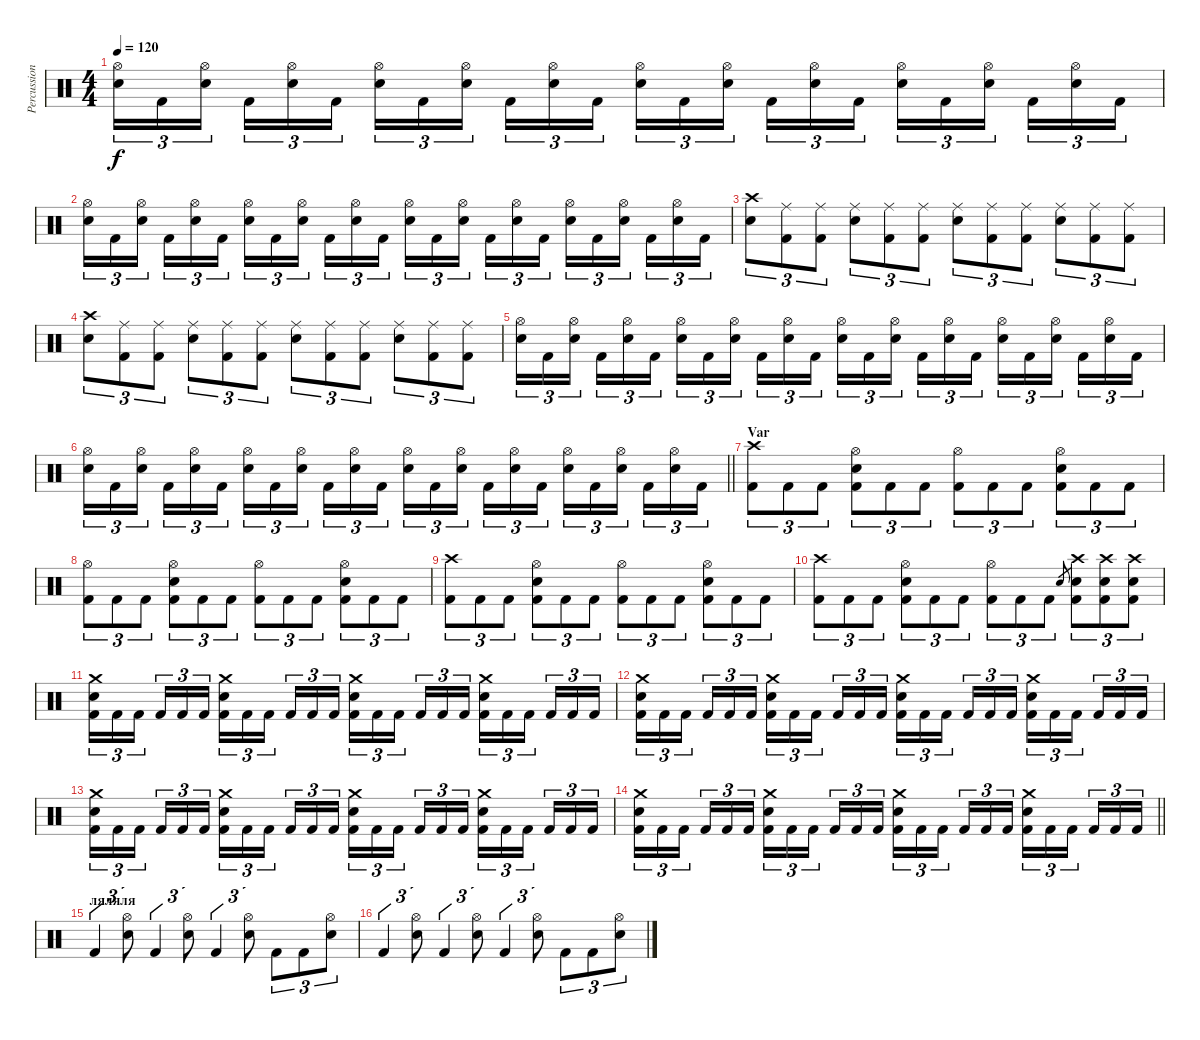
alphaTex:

\track ("Percussion" "Percussion") {instrument percussion}
\staff {score}
\articulation defaults
\ts (4 4)
\tempo 120
\clef neutral
\ks c
("Hi-Hat (open)" "Snare (hit) 2").16{tu (3 2) dy f} "Kick (hit) 2".16{tu (3 2)} ("Hi-Hat (open)" "Snare (hit) 2").16{tu (3 2) beam splitsecondary} "Kick (hit) 2".16{tu (3 2)} ("Hi-Hat (open)" "Snare (hit) 2").16{tu (3 2)} "Kick (hit) 2".16{tu (3 2)} ("Hi-Hat (open)" "Snare (hit) 2").16{tu (3 2)} "Kick (hit) 2".16{tu (3 2)} ("Hi-Hat (open)" "Snare (hit) 2").16{tu (3 2) beam splitsecondary} "Kick (hit) 2".16{tu (3 2)} ("Hi-Hat (open)" "Snare (hit) 2").16{tu (3 2)} "Kick (hit) 2".16{tu (3 2)} ("Hi-Hat (open)" "Snare (hit) 2").16{tu (3 2)} "Kick (hit) 2".16{tu (3 2)} ("Hi-Hat (open)" "Snare (hit) 2").16{tu (3 2) beam splitsecondary} "Kick (hit) 2".16{tu (3 2)} ("Hi-Hat (open)" "Snare (hit) 2").16{tu (3 2)} "Kick (hit) 2".16{tu (3 2)} ("Hi-Hat (open)" "Snare (hit) 2").16{tu (3 2)} "Kick (hit) 2".16{tu (3 2)} ("Hi-Hat (open)" "Snare (hit) 2").16{tu (3 2) beam splitsecondary} "Kick (hit) 2".16{tu (3 2)} ("Hi-Hat (open)" "Snare (hit) 2").16{tu (3 2)} "Kick (hit) 2".16{tu (3 2)} |
("Hi-Hat (open)" "Snare (hit) 2").16{tu (3 2)} "Kick (hit) 2".16{tu (3 2)} ("Hi-Hat (open)" "Snare (hit) 2").16{tu (3 2) beam splitsecondary} "Kick (hit) 2".16{tu (3 2)} ("Hi-Hat (open)" "Snare (hit) 2").16{tu (3 2)} "Kick (hit) 2".16{tu (3 2)} ("Hi-Hat (open)" "Snare (hit) 2").16{tu (3 2)} "Kick (hit) 2".16{tu (3 2)} ("Hi-Hat (open)" "Snare (hit) 2").16{tu (3 2) beam splitsecondary} "Kick (hit) 2".16{tu (3 2)} ("Hi-Hat (open)" "Snare (hit) 2").16{tu (3 2)} "Kick (hit) 2".16{tu (3 2)} ("Hi-Hat (open)" "Snare (hit) 2").16{tu (3 2)} "Kick (hit) 2".16{tu (3 2)} ("Hi-Hat (open)" "Snare (hit) 2").16{tu (3 2) beam splitsecondary} "Kick (hit) 2".16{tu (3 2)} ("Hi-Hat (open)" "Snare (hit) 2").16{tu (3 2)} "Kick (hit) 2".16{tu (3 2)} ("Hi-Hat (open)" "Snare (hit) 2").16{tu (3 2)} "Kick (hit) 2".16{tu (3 2)} ("Hi-Hat (open)" "Snare (hit) 2").16{tu (3 2) beam splitsecondary} "Kick (hit) 2".16{tu (3 2)} ("Hi-Hat (open)" "Snare (hit) 2").16{tu (3 2)} "Kick (hit) 2".16{tu (3 2)} |
("Crash high (hit)" "Snare (hit) 2").8{tu (3 2)} ("Ride (middle)" "Kick (hit) 2").8{tu (3 2)} ("Ride (middle)" "Kick (hit) 2").8{tu (3 2)} ("Ride (middle)" "Snare (hit) 2").8{tu (3 2)} ("Ride (middle)" "Kick (hit) 2").8{tu (3 2)} ("Ride (middle)" "Kick (hit) 2").8{tu (3 2)} ("Ride (middle)" "Snare (hit) 2").8{tu (3 2)} ("Ride (middle)" "Kick (hit) 2").8{tu (3 2)} ("Ride (middle)" "Kick (hit) 2").8{tu (3 2)} ("Ride (middle)" "Snare (hit) 2").8{tu (3 2)} ("Ride (middle)" "Kick (hit) 2").8{tu (3 2)} ("Ride (middle)" "Kick (hit) 2").8{tu (3 2)} |
("Crash high (hit)" "Snare (hit) 2").8{tu (3 2)} ("Ride (middle)" "Kick (hit) 2").8{tu (3 2)} ("Ride (middle)" "Kick (hit) 2").8{tu (3 2)} ("Ride (middle)" "Snare (hit) 2").8{tu (3 2)} ("Ride (middle)" "Kick (hit) 2").8{tu (3 2)} ("Ride (middle)" "Kick (hit) 2").8{tu (3 2)} ("Ride (middle)" "Snare (hit) 2").8{tu (3 2)} ("Ride (middle)" "Kick (hit) 2").8{tu (3 2)} ("Ride (middle)" "Kick (hit) 2").8{tu (3 2)} ("Ride (middle)" "Snare (hit) 2").8{tu (3 2)} ("Ride (middle)" "Kick (hit) 2").8{tu (3 2)} ("Ride (middle)" "Kick (hit) 2").8{tu (3 2)} |
("Hi-Hat (open)" "Snare (hit) 2").16{tu (3 2)} "Kick (hit) 2".16{tu (3 2)} ("Hi-Hat (open)" "Snare (hit) 2").16{tu (3 2) beam splitsecondary} "Kick (hit) 2".16{tu (3 2)} ("Hi-Hat (open)" "Snare (hit) 2").16{tu (3 2)} "Kick (hit) 2".16{tu (3 2)} ("Hi-Hat (open)" "Snare (hit) 2").16{tu (3 2)} "Kick (hit) 2".16{tu (3 2)} ("Hi-Hat (open)" "Snare (hit) 2").16{tu (3 2) beam splitsecondary} "Kick (hit) 2".16{tu (3 2)} ("Hi-Hat (open)" "Snare (hit) 2").16{tu (3 2)} "Kick (hit) 2".16{tu (3 2)} ("Hi-Hat (open)" "Snare (hit) 2").16{tu (3 2)} "Kick (hit) 2".16{tu (3 2)} ("Hi-Hat (open)" "Snare (hit) 2").16{tu (3 2) beam splitsecondary} "Kick (hit) 2".16{tu (3 2)} ("Hi-Hat (open)" "Snare (hit) 2").16{tu (3 2)} "Kick (hit) 2".16{tu (3 2)} ("Hi-Hat (open)" "Snare (hit) 2").16{tu (3 2)} "Kick (hit) 2".16{tu (3 2)} ("Hi-Hat (open)" "Snare (hit) 2").16{tu (3 2) beam splitsecondary} "Kick (hit) 2".16{tu (3 2)} ("Hi-Hat (open)" "Snare (hit) 2").16{tu (3 2)} "Kick (hit) 2".16{tu (3 2)} |
\barLineRight lightlight
("Hi-Hat (open)" "Snare (hit) 2").16{tu (3 2)} "Kick (hit) 2".16{tu (3 2)} ("Hi-Hat (open)" "Snare (hit) 2").16{tu (3 2) beam splitsecondary} "Kick (hit) 2".16{tu (3 2)} ("Hi-Hat (open)" "Snare (hit) 2").16{tu (3 2)} "Kick (hit) 2".16{tu (3 2)} ("Hi-Hat (open)" "Snare (hit) 2").16{tu (3 2)} "Kick (hit) 2".16{tu (3 2)} ("Hi-Hat (open)" "Snare (hit) 2").16{tu (3 2) beam splitsecondary} "Kick (hit) 2".16{tu (3 2)} ("Hi-Hat (open)" "Snare (hit) 2").16{tu (3 2)} "Kick (hit) 2".16{tu (3 2)} ("Hi-Hat (open)" "Snare (hit) 2").16{tu (3 2)} "Kick (hit) 2".16{tu (3 2)} ("Hi-Hat (open)" "Snare (hit) 2").16{tu (3 2) beam splitsecondary} "Kick (hit) 2".16{tu (3 2)} ("Hi-Hat (open)" "Snare (hit) 2").16{tu (3 2)} "Kick (hit) 2".16{tu (3 2)} ("Hi-Hat (open)" "Snare (hit) 2").16{tu (3 2)} "Kick (hit) 2".16{tu (3 2)} ("Hi-Hat (open)" "Snare (hit) 2").16{tu (3 2) beam splitsecondary} "Kick (hit) 2".16{tu (3 2)} ("Hi-Hat (open)" "Snare (hit) 2").16{tu (3 2)} "Kick (hit) 2".16{tu (3 2)} |
\section ("" "Var")
("Crash high (hit)" "Kick (hit) 2").8{tu (3 2)} "Kick (hit) 2".8{tu (3 2)} "Kick (hit) 2".8{tu (3 2)} ("Hi-Hat (open)" "Snare (hit) 2" "Kick (hit) 2").8{tu (3 2)} "Kick (hit) 2".8{tu (3 2)} "Kick (hit) 2".8{tu (3 2)} ("Hi-Hat (open)" "Kick (hit) 2").8{tu (3 2)} "Kick (hit) 2".8{tu (3 2)} "Kick (hit) 2".8{tu (3 2)} ("Hi-Hat (open)" "Snare (hit) 2" "Kick (hit) 2").8{tu (3 2)} "Kick (hit) 2".8{tu (3 2)} "Kick (hit) 2".8{tu (3 2)} |
("Hi-Hat (open)" "Kick (hit) 2").8{tu (3 2)} "Kick (hit) 2".8{tu (3 2)} "Kick (hit) 2".8{tu (3 2)} ("Hi-Hat (open)" "Snare (hit) 2" "Kick (hit) 2").8{tu (3 2)} "Kick (hit) 2".8{tu (3 2)} "Kick (hit) 2".8{tu (3 2)} ("Hi-Hat (open)" "Kick (hit) 2").8{tu (3 2)} "Kick (hit) 2".8{tu (3 2)} "Kick (hit) 2".8{tu (3 2)} ("Hi-Hat (open)" "Snare (hit) 2" "Kick (hit) 2").8{tu (3 2)} "Kick (hit) 2".8{tu (3 2)} "Kick (hit) 2".8{tu (3 2)} |
("Crash high (hit)" "Kick (hit) 2").8{tu (3 2)} "Kick (hit) 2".8{tu (3 2)} "Kick (hit) 2".8{tu (3 2)} ("Hi-Hat (open)" "Snare (hit) 2" "Kick (hit) 2").8{tu (3 2)} "Kick (hit) 2".8{tu (3 2)} "Kick (hit) 2".8{tu (3 2)} ("Hi-Hat (open)" "Kick (hit) 2").8{tu (3 2)} "Kick (hit) 2".8{tu (3 2)} "Kick (hit) 2".8{tu (3 2)} ("Hi-Hat (open)" "Snare (hit) 2" "Kick (hit) 2").8{tu (3 2)} "Kick (hit) 2".8{tu (3 2)} "Kick (hit) 2".8{tu (3 2)} |
("Crash high (hit)" "Kick (hit) 2").8{tu (3 2)} "Kick (hit) 2".8{tu (3 2)} "Kick (hit) 2".8{tu (3 2)} ("Hi-Hat (open)" "Snare (hit) 2" "Kick (hit) 2").8{tu (3 2)} "Kick (hit) 2".8{tu (3 2)} "Kick (hit) 2".8{tu (3 2)} ("Hi-Hat (open)" "Kick (hit) 2").8{tu (3 2)} "Kick (hit) 2".8{tu (3 2)} "Kick (hit) 2".8{tu (3 2)} "Snare (hit) 2".8{gr} ("Crash high (hit)" "Snare (hit) 2" "Kick (hit) 2").8{tu (3 2)} ("Crash high (hit)" "Snare (hit) 2" "Kick (hit) 2").8{tu (3 2)} ("Crash high (hit)" "Snare (hit) 2" "Kick (hit) 2").8{tu (3 2)} |
("Crash medium (hit)" "Snare (hit) 2" "Kick (hit) 2").16{tu (3 2)} "Kick (hit) 2".16{tu (3 2)} "Kick (hit) 2".16{tu (3 2) beam splitsecondary} "Kick (hit) 2".16{tu (3 2)} "Kick (hit) 2".16{tu (3 2)} "Kick (hit) 2".16{tu (3 2)} ("Crash medium (hit)" "Snare (hit) 2" "Kick (hit) 2").16{tu (3 2)} "Kick (hit) 2".16{tu (3 2)} "Kick (hit) 2".16{tu (3 2) beam splitsecondary} "Kick (hit) 2".16{tu (3 2)} "Kick (hit) 2".16{tu (3 2)} "Kick (hit) 2".16{tu (3 2)} ("Crash medium (hit)" "Snare (hit) 2" "Kick (hit) 2").16{tu (3 2)} "Kick (hit) 2".16{tu (3 2)} "Kick (hit) 2".16{tu (3 2) beam splitsecondary} "Kick (hit) 2".16{tu (3 2)} "Kick (hit) 2".16{tu (3 2)} "Kick (hit) 2".16{tu (3 2)} ("Crash medium (hit)" "Snare (hit) 2" "Kick (hit) 2").16{tu (3 2)} "Kick (hit) 2".16{tu (3 2)} "Kick (hit) 2".16{tu (3 2) beam splitsecondary} "Kick (hit) 2".16{tu (3 2)} "Kick (hit) 2".16{tu (3 2)} "Kick (hit) 2".16{tu (3 2)} |
("Crash medium (hit)" "Snare (hit) 2" "Kick (hit) 2").16{tu (3 2)} "Kick (hit) 2".16{tu (3 2)} "Kick (hit) 2".16{tu (3 2) beam splitsecondary} "Kick (hit) 2".16{tu (3 2)} "Kick (hit) 2".16{tu (3 2)} "Kick (hit) 2".16{tu (3 2)} ("Crash medium (hit)" "Snare (hit) 2" "Kick (hit) 2").16{tu (3 2)} "Kick (hit) 2".16{tu (3 2)} "Kick (hit) 2".16{tu (3 2) beam splitsecondary} "Kick (hit) 2".16{tu (3 2)} "Kick (hit) 2".16{tu (3 2)} "Kick (hit) 2".16{tu (3 2)} ("Crash medium (hit)" "Snare (hit) 2" "Kick (hit) 2").16{tu (3 2)} "Kick (hit) 2".16{tu (3 2)} "Kick (hit) 2".16{tu (3 2) beam splitsecondary} "Kick (hit) 2".16{tu (3 2)} "Kick (hit) 2".16{tu (3 2)} "Kick (hit) 2".16{tu (3 2)} ("Crash medium (hit)" "Snare (hit) 2" "Kick (hit) 2").16{tu (3 2)} "Kick (hit) 2".16{tu (3 2)} "Kick (hit) 2".16{tu (3 2) beam splitsecondary} "Kick (hit) 2".16{tu (3 2)} "Kick (hit) 2".16{tu (3 2)} "Kick (hit) 2".16{tu (3 2)} |
("Crash medium (hit)" "Snare (hit) 2" "Kick (hit) 2").16{tu (3 2)} "Kick (hit) 2".16{tu (3 2)} "Kick (hit) 2".16{tu (3 2) beam splitsecondary} "Kick (hit) 2".16{tu (3 2)} "Kick (hit) 2".16{tu (3 2)} "Kick (hit) 2".16{tu (3 2)} ("Crash medium (hit)" "Snare (hit) 2" "Kick (hit) 2").16{tu (3 2)} "Kick (hit) 2".16{tu (3 2)} "Kick (hit) 2".16{tu (3 2) beam splitsecondary} "Kick (hit) 2".16{tu (3 2)} "Kick (hit) 2".16{tu (3 2)} "Kick (hit) 2".16{tu (3 2)} ("Crash medium (hit)" "Snare (hit) 2" "Kick (hit) 2").16{tu (3 2)} "Kick (hit) 2".16{tu (3 2)} "Kick (hit) 2".16{tu (3 2) beam splitsecondary} "Kick (hit) 2".16{tu (3 2)} "Kick (hit) 2".16{tu (3 2)} "Kick (hit) 2".16{tu (3 2)} ("Crash medium (hit)" "Snare (hit) 2" "Kick (hit) 2").16{tu (3 2)} "Kick (hit) 2".16{tu (3 2)} "Kick (hit) 2".16{tu (3 2) beam splitsecondary} "Kick (hit) 2".16{tu (3 2)} "Kick (hit) 2".16{tu (3 2)} "Kick (hit) 2".16{tu (3 2)} |
\barLineRight lightlight
("Crash medium (hit)" "Snare (hit) 2" "Kick (hit) 2").16{tu (3 2)} "Kick (hit) 2".16{tu (3 2)} "Kick (hit) 2".16{tu (3 2) beam splitsecondary} "Kick (hit) 2".16{tu (3 2)} "Kick (hit) 2".16{tu (3 2)} "Kick (hit) 2".16{tu (3 2)} ("Crash medium (hit)" "Snare (hit) 2" "Kick (hit) 2").16{tu (3 2)} "Kick (hit) 2".16{tu (3 2)} "Kick (hit) 2".16{tu (3 2) beam splitsecondary} "Kick (hit) 2".16{tu (3 2)} "Kick (hit) 2".16{tu (3 2)} "Kick (hit) 2".16{tu (3 2)} ("Crash medium (hit)" "Snare (hit) 2" "Kick (hit) 2").16{tu (3 2)} "Kick (hit) 2".16{tu (3 2)} "Kick (hit) 2".16{tu (3 2) beam splitsecondary} "Kick (hit) 2".16{tu (3 2)} "Kick (hit) 2".16{tu (3 2)} "Kick (hit) 2".16{tu (3 2)} ("Crash medium (hit)" "Snare (hit) 2" "Kick (hit) 2").16{tu (3 2)} "Kick (hit) 2".16{tu (3 2)} "Kick (hit) 2".16{tu (3 2) beam splitsecondary} "Kick (hit) 2".16{tu (3 2)} "Kick (hit) 2".16{tu (3 2)} "Kick (hit) 2".16{tu (3 2)} |
\section ("" "ляляля")
"Kick (hit) 2".4{tu (3 2)} ("Hi-Hat (open)" "Snare (hit) 2").8{tu (3 2)} "Kick (hit) 2".4{tu (3 2)} ("Hi-Hat (open)" "Snare (hit) 2").8{tu (3 2)} "Kick (hit) 2".4{tu (3 2)} ("Hi-Hat (open)" "Snare (hit) 2").8{tu (3 2)} "Kick (hit) 2".8{tu (3 2)} "Kick (hit) 2".8{tu (3 2)} ("Hi-Hat (open)" "Snare (hit) 2").8{tu (3 2)} |
"Kick (hit) 2".4{tu (3 2)} ("Hi-Hat (open)" "Snare (hit) 2").8{tu (3 2)} "Kick (hit) 2".4{tu (3 2)} ("Hi-Hat (open)" "Snare (hit) 2").8{tu (3 2)} "Kick (hit) 2".4{tu (3 2)} ("Hi-Hat (open)" "Snare (hit) 2").8{tu (3 2)} "Kick (hit) 2".8{tu (3 2)} "Kick (hit) 2".8{tu (3 2)} ("Hi-Hat (open)" "Snare (hit) 2").8{tu (3 2)}
